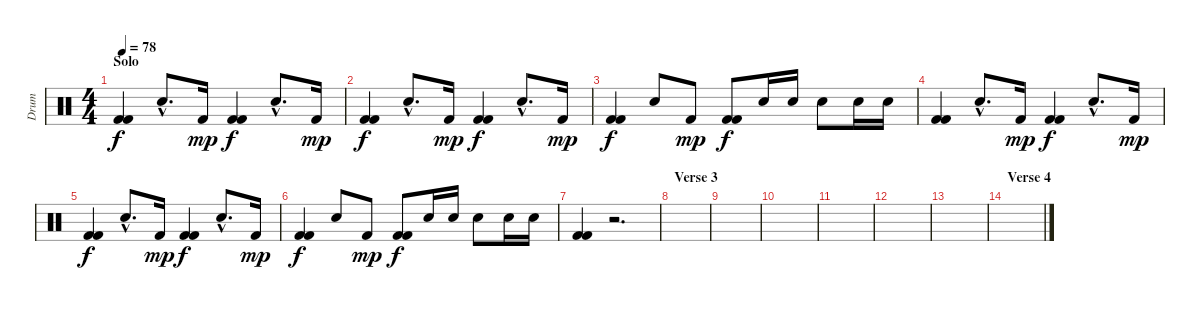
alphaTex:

\track ("Drum" "Drum") {instrument percussion}
\staff {score}
\articulation defaults
\ts (4 4)
\section ("" "Solo")
\tempo 78
\clef neutral
\ks c
("Kick (hit) 2" "Kick (hit) 2").4{dy f} "Electric Snare (hit)"{hac}.8{d} "Kick (hit) 2".16{dy mp} ("Kick (hit) 2" "Kick (hit) 2").4{dy f} "Electric Snare (hit)"{hac}.8{d} "Kick (hit) 2".16{dy mp} |
("Kick (hit) 2" "Kick (hit) 2").4{dy f} "Electric Snare (hit)"{hac}.8{d} "Kick (hit) 2".16{dy mp} ("Kick (hit) 2" "Kick (hit) 2").4{dy f} "Electric Snare (hit)"{hac}.8{d} "Kick (hit) 2".16{dy mp} |
("Kick (hit) 2" "Kick (hit) 2").4{dy f} "Electric Snare (hit)".8 "Kick (hit) 2".8{dy mp} ("Kick (hit) 2" "Kick (hit) 2").8{dy f} "Electric Snare (hit)".16 "Electric Snare (hit)".16 "Electric Snare (hit)".8 "Electric Snare (hit)".16 "Electric Snare (hit)".16 |
("Kick (hit) 2" "Kick (hit) 2").4 "Electric Snare (hit)"{hac}.8{d} "Kick (hit) 2".16{dy mp} ("Kick (hit) 2" "Kick (hit) 2").4{dy f} "Electric Snare (hit)"{hac}.8{d} "Kick (hit) 2".16{dy mp} |
("Kick (hit) 2" "Kick (hit) 2").4{dy f} "Electric Snare (hit)"{hac}.8{d} "Kick (hit) 2".16{dy mp} ("Kick (hit) 2" "Kick (hit) 2").4{dy f} "Electric Snare (hit)"{hac}.8{d} "Kick (hit) 2".16{dy mp} |
("Kick (hit) 2" "Kick (hit) 2").4{dy f} "Electric Snare (hit)".8 "Kick (hit) 2".8{dy mp} ("Kick (hit) 2" "Kick (hit) 2").8{dy f} "Electric Snare (hit)".16 "Electric Snare (hit)".16 "Electric Snare (hit)".8 "Electric Snare (hit)".16 "Electric Snare (hit)".16 |
("Kick (hit) 2" "Kick (hit) 2").4 r.2{d} |
\section ("" "Verse 3")
|
|
|
|
|
|
\section ("" "Verse 4")
